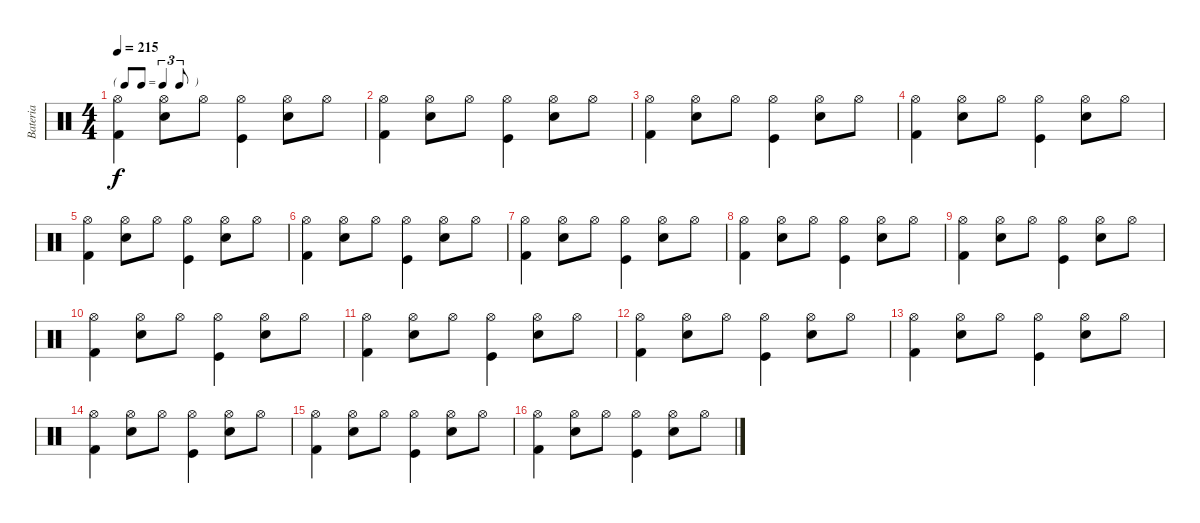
\track ("Bateria" "Bateria") {instrument percussion}
\staff {score}
\articulation defaults
\ts (4 4)
\tf triplet8th
\tempo 215
\clef neutral
\ks c
("Hi-Hat (open)" "Kick (hit) 2").4{dy f} ("Hi-Hat (open)" "Electric Snare (hit)").8 "Hi-Hat (open)".8 ("Hi-Hat (open)" "Kick (hit)").4 ("Hi-Hat (open)" "Electric Snare (hit)").8 "Hi-Hat (open)".8 |
("Hi-Hat (open)" "Kick (hit) 2").4 ("Hi-Hat (open)" "Electric Snare (hit)").8 "Hi-Hat (open)".8 ("Hi-Hat (open)" "Kick (hit)").4 ("Hi-Hat (open)" "Electric Snare (hit)").8 "Hi-Hat (open)".8 |
("Hi-Hat (open)" "Kick (hit) 2").4 ("Hi-Hat (open)" "Electric Snare (hit)").8 "Hi-Hat (open)".8 ("Hi-Hat (open)" "Kick (hit)").4 ("Hi-Hat (open)" "Electric Snare (hit)").8 "Hi-Hat (open)".8 |
("Hi-Hat (open)" "Kick (hit) 2").4 ("Hi-Hat (open)" "Electric Snare (hit)").8 "Hi-Hat (open)".8 ("Hi-Hat (open)" "Kick (hit)").4 ("Hi-Hat (open)" "Electric Snare (hit)").8 "Hi-Hat (open)".8 |
("Hi-Hat (open)" "Kick (hit) 2").4 ("Hi-Hat (open)" "Electric Snare (hit)").8 "Hi-Hat (open)".8 ("Hi-Hat (open)" "Kick (hit)").4 ("Hi-Hat (open)" "Electric Snare (hit)").8 "Hi-Hat (open)".8 |
("Hi-Hat (open)" "Kick (hit) 2").4 ("Hi-Hat (open)" "Electric Snare (hit)").8 "Hi-Hat (open)".8 ("Hi-Hat (open)" "Kick (hit)").4 ("Hi-Hat (open)" "Electric Snare (hit)").8 "Hi-Hat (open)".8 |
("Hi-Hat (open)" "Kick (hit) 2").4 ("Hi-Hat (open)" "Electric Snare (hit)").8 "Hi-Hat (open)".8 ("Hi-Hat (open)" "Kick (hit)").4 ("Hi-Hat (open)" "Electric Snare (hit)").8 "Hi-Hat (open)".8 |
("Hi-Hat (open)" "Kick (hit) 2").4 ("Hi-Hat (open)" "Electric Snare (hit)").8 "Hi-Hat (open)".8 ("Hi-Hat (open)" "Kick (hit)").4 ("Hi-Hat (open)" "Electric Snare (hit)").8 "Hi-Hat (open)".8 |
("Hi-Hat (open)" "Kick (hit) 2").4 ("Hi-Hat (open)" "Electric Snare (hit)").8 "Hi-Hat (open)".8 ("Hi-Hat (open)" "Kick (hit)").4 ("Hi-Hat (open)" "Electric Snare (hit)").8 "Hi-Hat (open)".8 |
("Hi-Hat (open)" "Kick (hit) 2").4 ("Hi-Hat (open)" "Electric Snare (hit)").8 "Hi-Hat (open)".8 ("Hi-Hat (open)" "Kick (hit)").4 ("Hi-Hat (open)" "Electric Snare (hit)").8 "Hi-Hat (open)".8 |
("Hi-Hat (open)" "Kick (hit) 2").4 ("Hi-Hat (open)" "Electric Snare (hit)").8 "Hi-Hat (open)".8 ("Hi-Hat (open)" "Kick (hit)").4 ("Hi-Hat (open)" "Electric Snare (hit)").8 "Hi-Hat (open)".8 |
("Hi-Hat (open)" "Kick (hit) 2").4 ("Hi-Hat (open)" "Electric Snare (hit)").8 "Hi-Hat (open)".8 ("Hi-Hat (open)" "Kick (hit)").4 ("Hi-Hat (open)" "Electric Snare (hit)").8 "Hi-Hat (open)".8 |
("Hi-Hat (open)" "Kick (hit) 2").4 ("Hi-Hat (open)" "Electric Snare (hit)").8 "Hi-Hat (open)".8 ("Hi-Hat (open)" "Kick (hit)").4 ("Hi-Hat (open)" "Electric Snare (hit)").8 "Hi-Hat (open)".8 |
("Hi-Hat (open)" "Kick (hit) 2").4 ("Hi-Hat (open)" "Electric Snare (hit)").8 "Hi-Hat (open)".8 ("Hi-Hat (open)" "Kick (hit)").4 ("Hi-Hat (open)" "Electric Snare (hit)").8 "Hi-Hat (open)".8 |
("Hi-Hat (open)" "Kick (hit) 2").4 ("Hi-Hat (open)" "Electric Snare (hit)").8 "Hi-Hat (open)".8 ("Hi-Hat (open)" "Kick (hit)").4 ("Hi-Hat (open)" "Electric Snare (hit)").8 "Hi-Hat (open)".8 |
("Hi-Hat (open)" "Kick (hit) 2").4 ("Hi-Hat (open)" "Electric Snare (hit)").8 "Hi-Hat (open)".8 ("Hi-Hat (open)" "Kick (hit)").4 ("Hi-Hat (open)" "Electric Snare (hit)").8 "Hi-Hat (open)".8
